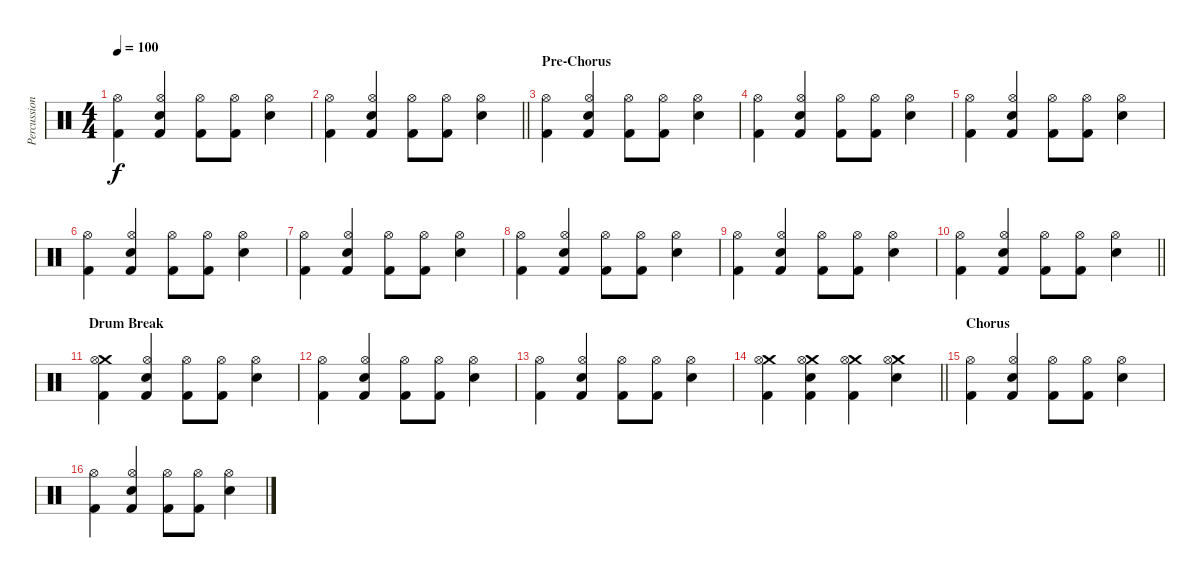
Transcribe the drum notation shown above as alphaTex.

\track ("Percussion" "Percussion") {instrument percussion}
\staff {score}
\articulation defaults
\ts (4 4)
\tempo 100
\clef neutral
\ks c
("Kick (hit) 2" "Hi-Hat (open)").4{dy f} ("Kick (hit) 2" "Snare (hit) 2" "Hi-Hat (open)").4 ("Kick (hit) 2" "Hi-Hat (open)").8 ("Kick (hit) 2" "Hi-Hat (open)").8 ("Snare (hit) 2" "Hi-Hat (open)").4 |
\barLineRight lightlight
("Kick (hit) 2" "Hi-Hat (open)").4 ("Kick (hit) 2" "Snare (hit) 2" "Hi-Hat (open)").4 ("Kick (hit) 2" "Hi-Hat (open)").8 ("Kick (hit) 2" "Hi-Hat (open)").8 ("Snare (hit) 2" "Hi-Hat (open)").4 |
\section ("" "Pre-Chorus")
("Kick (hit) 2" "Hi-Hat (open)").4 ("Kick (hit) 2" "Snare (hit) 2" "Hi-Hat (open)").4 ("Kick (hit) 2" "Hi-Hat (open)").8 ("Kick (hit) 2" "Hi-Hat (open)").8 ("Snare (hit) 2" "Hi-Hat (open)").4 |
("Kick (hit) 2" "Hi-Hat (open)").4 ("Kick (hit) 2" "Snare (hit) 2" "Hi-Hat (open)").4 ("Kick (hit) 2" "Hi-Hat (open)").8 ("Kick (hit) 2" "Hi-Hat (open)").8 ("Snare (hit) 2" "Hi-Hat (open)").4 |
("Kick (hit) 2" "Hi-Hat (open)").4 ("Kick (hit) 2" "Snare (hit) 2" "Hi-Hat (open)").4 ("Kick (hit) 2" "Hi-Hat (open)").8 ("Kick (hit) 2" "Hi-Hat (open)").8 ("Snare (hit) 2" "Hi-Hat (open)").4 |
("Kick (hit) 2" "Hi-Hat (open)").4 ("Kick (hit) 2" "Snare (hit) 2" "Hi-Hat (open)").4 ("Kick (hit) 2" "Hi-Hat (open)").8 ("Kick (hit) 2" "Hi-Hat (open)").8 ("Snare (hit) 2" "Hi-Hat (open)").4 |
("Kick (hit) 2" "Hi-Hat (open)").4 ("Kick (hit) 2" "Snare (hit) 2" "Hi-Hat (open)").4 ("Kick (hit) 2" "Hi-Hat (open)").8 ("Kick (hit) 2" "Hi-Hat (open)").8 ("Snare (hit) 2" "Hi-Hat (open)").4 |
("Kick (hit) 2" "Hi-Hat (open)").4 ("Kick (hit) 2" "Snare (hit) 2" "Hi-Hat (open)").4 ("Kick (hit) 2" "Hi-Hat (open)").8 ("Kick (hit) 2" "Hi-Hat (open)").8 ("Snare (hit) 2" "Hi-Hat (open)").4 |
("Kick (hit) 2" "Hi-Hat (open)").4 ("Kick (hit) 2" "Snare (hit) 2" "Hi-Hat (open)").4 ("Kick (hit) 2" "Hi-Hat (open)").8 ("Kick (hit) 2" "Hi-Hat (open)").8 ("Snare (hit) 2" "Hi-Hat (open)").4 |
\barLineRight lightlight
("Kick (hit) 2" "Hi-Hat (open)").4 ("Kick (hit) 2" "Snare (hit) 2" "Hi-Hat (open)").4 ("Kick (hit) 2" "Hi-Hat (open)").8 ("Kick (hit) 2" "Hi-Hat (open)").8 ("Snare (hit) 2" "Hi-Hat (open)").4 |
\section ("" "Drum Break")
("Kick (hit) 2" "Crash medium (hit)" "Hi-Hat (open)").4 ("Kick (hit) 2" "Snare (hit) 2" "Hi-Hat (open)").4 ("Kick (hit) 2" "Hi-Hat (open)").8 ("Kick (hit) 2" "Hi-Hat (open)").8 ("Snare (hit) 2" "Hi-Hat (open)").4 |
("Kick (hit) 2" "Hi-Hat (open)").4 ("Kick (hit) 2" "Snare (hit) 2" "Hi-Hat (open)").4 ("Kick (hit) 2" "Hi-Hat (open)").8 ("Kick (hit) 2" "Hi-Hat (open)").8 ("Snare (hit) 2" "Hi-Hat (open)").4 |
("Kick (hit) 2" "Hi-Hat (open)").4 ("Kick (hit) 2" "Snare (hit) 2" "Hi-Hat (open)").4 ("Kick (hit) 2" "Hi-Hat (open)").8 ("Kick (hit) 2" "Hi-Hat (open)").8 ("Snare (hit) 2" "Hi-Hat (open)").4 |
\barLineRight lightlight
("Kick (hit) 2" "Crash medium (hit)" "Hi-Hat (open)").4 ("Crash medium (hit)" "Kick (hit) 2" "Snare (hit) 2" "Hi-Hat (open)").4 ("Crash medium (hit)" "Kick (hit) 2" "Hi-Hat (open)").4 ("Crash medium (hit)" "Snare (hit) 2" "Hi-Hat (open)").4 |
\section ("" "Chorus")
("Kick (hit) 2" "Hi-Hat (open)").4 ("Kick (hit) 2" "Snare (hit) 2" "Hi-Hat (open)").4 ("Kick (hit) 2" "Hi-Hat (open)").8 ("Kick (hit) 2" "Hi-Hat (open)").8 ("Snare (hit) 2" "Hi-Hat (open)").4 |
("Kick (hit) 2" "Hi-Hat (open)").4 ("Kick (hit) 2" "Snare (hit) 2" "Hi-Hat (open)").4 ("Kick (hit) 2" "Hi-Hat (open)").8 ("Kick (hit) 2" "Hi-Hat (open)").8 ("Snare (hit) 2" "Hi-Hat (open)").4
